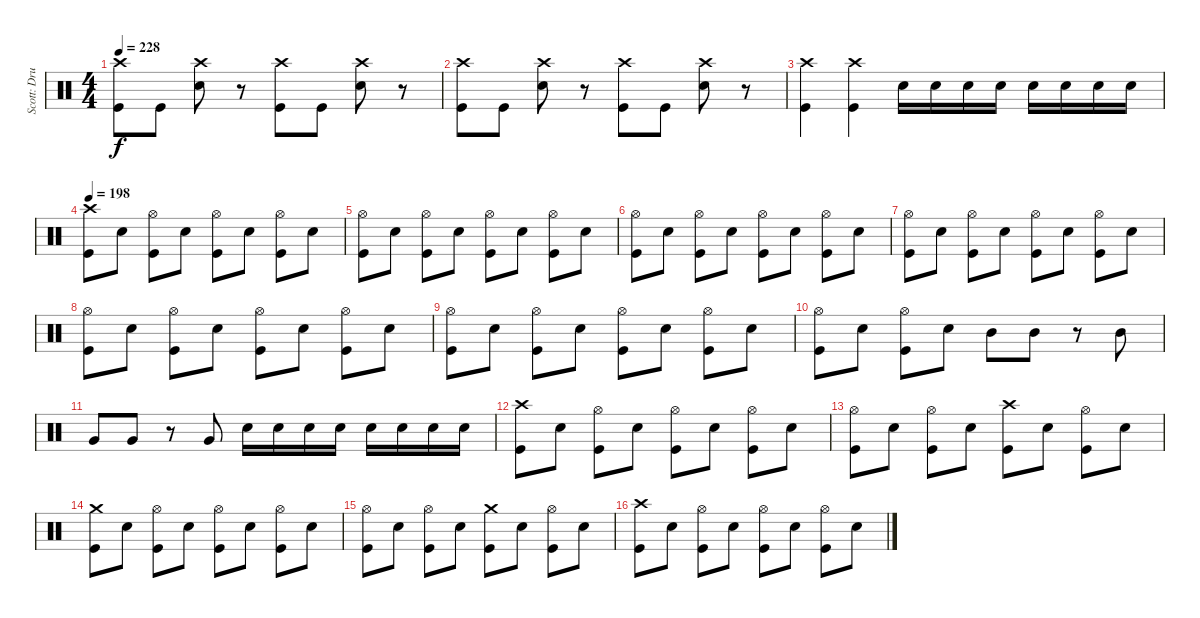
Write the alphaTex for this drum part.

\track ("Scott: Drums" "Scott: Dru") {instrument percussion}
\staff {score}
\articulation defaults
\ts (4 4)
\tempo 228
\clef neutral
\ks c
("Crash high (hit)" "Kick (hit)").8{dy f} "Kick (hit)".8 ("Crash high (hit)" "Electric Snare (hit)").8 r.8 ("Crash high (hit)" "Kick (hit)").8 "Kick (hit)".8 ("Crash high (hit)" "Electric Snare (hit)").8 r.8 |
("Crash high (hit)" "Kick (hit)").8 "Kick (hit)".8 ("Crash high (hit)" "Electric Snare (hit)").8 r.8 ("Crash high (hit)" "Kick (hit)").8 "Kick (hit)".8 ("Crash high (hit)" "Electric Snare (hit)").8 r.8 |
("Crash high (hit)" "Kick (hit)").4 ("Crash high (hit)" "Kick (hit)").4 "Electric Snare (hit)".16 "Electric Snare (hit)".16 "Electric Snare (hit)".16 "Electric Snare (hit)".16 "Electric Snare (hit)".16 "Electric Snare (hit)".16 "Electric Snare (hit)".16 "Electric Snare (hit)".16 |
\tempo 198
("Crash high (hit)" "Kick (hit)").8 "Electric Snare (hit)".8 ("Hi-Hat (open)" "Kick (hit)").8 "Electric Snare (hit)".8 ("Hi-Hat (open)" "Kick (hit)").8 "Electric Snare (hit)".8 ("Hi-Hat (open)" "Kick (hit)").8 "Electric Snare (hit)".8 |
("Hi-Hat (open)" "Kick (hit)").8 "Electric Snare (hit)".8 ("Hi-Hat (open)" "Kick (hit)").8 "Electric Snare (hit)".8 ("Hi-Hat (open)" "Kick (hit)").8 "Electric Snare (hit)".8 ("Hi-Hat (open)" "Kick (hit)").8 "Electric Snare (hit)".8 |
("Hi-Hat (open)" "Kick (hit)").8 "Electric Snare (hit)".8 ("Hi-Hat (open)" "Kick (hit)").8 "Electric Snare (hit)".8 ("Hi-Hat (open)" "Kick (hit)").8 "Electric Snare (hit)".8 ("Hi-Hat (open)" "Kick (hit)").8 "Electric Snare (hit)".8 |
("Hi-Hat (open)" "Kick (hit)").8 "Electric Snare (hit)".8 ("Hi-Hat (open)" "Kick (hit)").8 "Electric Snare (hit)".8 ("Hi-Hat (open)" "Kick (hit)").8 "Electric Snare (hit)".8 ("Hi-Hat (open)" "Kick (hit)").8 "Electric Snare (hit)".8 |
("Hi-Hat (open)" "Kick (hit)").8 "Electric Snare (hit)".8 ("Hi-Hat (open)" "Kick (hit)").8 "Electric Snare (hit)".8 ("Hi-Hat (open)" "Kick (hit)").8 "Electric Snare (hit)".8 ("Hi-Hat (open)" "Kick (hit)").8 "Electric Snare (hit)".8 |
("Hi-Hat (open)" "Kick (hit)").8 "Electric Snare (hit)".8 ("Hi-Hat (open)" "Kick (hit)").8 "Electric Snare (hit)".8 ("Hi-Hat (open)" "Kick (hit)").8 "Electric Snare (hit)".8 ("Hi-Hat (open)" "Kick (hit)").8 "Electric Snare (hit)".8 |
("Hi-Hat (open)" "Kick (hit)").8 "Electric Snare (hit)".8 ("Hi-Hat (open)" "Kick (hit)").8 "Electric Snare (hit)".8 "Mid Tom (hit)".8 "Mid Tom (hit)".8 r.8 "Mid Tom (hit)".8 |
"Very Low Tom (hit)".8 "Very Low Tom (hit)".8 r.8 "Very Low Tom (hit)".8 "Electric Snare (hit)".16 "Electric Snare (hit)".16 "Electric Snare (hit)".16 "Electric Snare (hit)".16 "Electric Snare (hit)".16 "Electric Snare (hit)".16 "Electric Snare (hit)".16 "Electric Snare (hit)".16 |
("Crash high (hit)" "Kick (hit)").8 "Electric Snare (hit)".8 ("Hi-Hat (open)" "Kick (hit)").8 "Electric Snare (hit)".8 ("Hi-Hat (open)" "Kick (hit)").8 "Electric Snare (hit)".8 ("Hi-Hat (open)" "Kick (hit)").8 "Electric Snare (hit)".8 |
("Hi-Hat (open)" "Kick (hit)").8 "Electric Snare (hit)".8 ("Hi-Hat (open)" "Kick (hit)").8 "Electric Snare (hit)".8 ("Crash high (hit)" "Kick (hit)").8 "Electric Snare (hit)".8 ("Hi-Hat (open)" "Kick (hit)").8 "Electric Snare (hit)".8 |
("Crash medium (hit)" "Kick (hit)").8 "Electric Snare (hit)".8 ("Hi-Hat (open)" "Kick (hit)").8 "Electric Snare (hit)".8 ("Hi-Hat (open)" "Kick (hit)").8 "Electric Snare (hit)".8 ("Hi-Hat (open)" "Kick (hit)").8 "Electric Snare (hit)".8 |
("Hi-Hat (open)" "Kick (hit)").8 "Electric Snare (hit)".8 ("Hi-Hat (open)" "Kick (hit)").8 "Electric Snare (hit)".8 ("Crash medium (hit)" "Kick (hit)").8 "Electric Snare (hit)".8 ("Hi-Hat (open)" "Kick (hit)").8 "Electric Snare (hit)".8 |
("Crash high (hit)" "Kick (hit)").8 "Electric Snare (hit)".8 ("Hi-Hat (open)" "Kick (hit)").8 "Electric Snare (hit)".8 ("Hi-Hat (open)" "Kick (hit)").8 "Electric Snare (hit)".8 ("Hi-Hat (open)" "Kick (hit)").8 "Electric Snare (hit)".8
